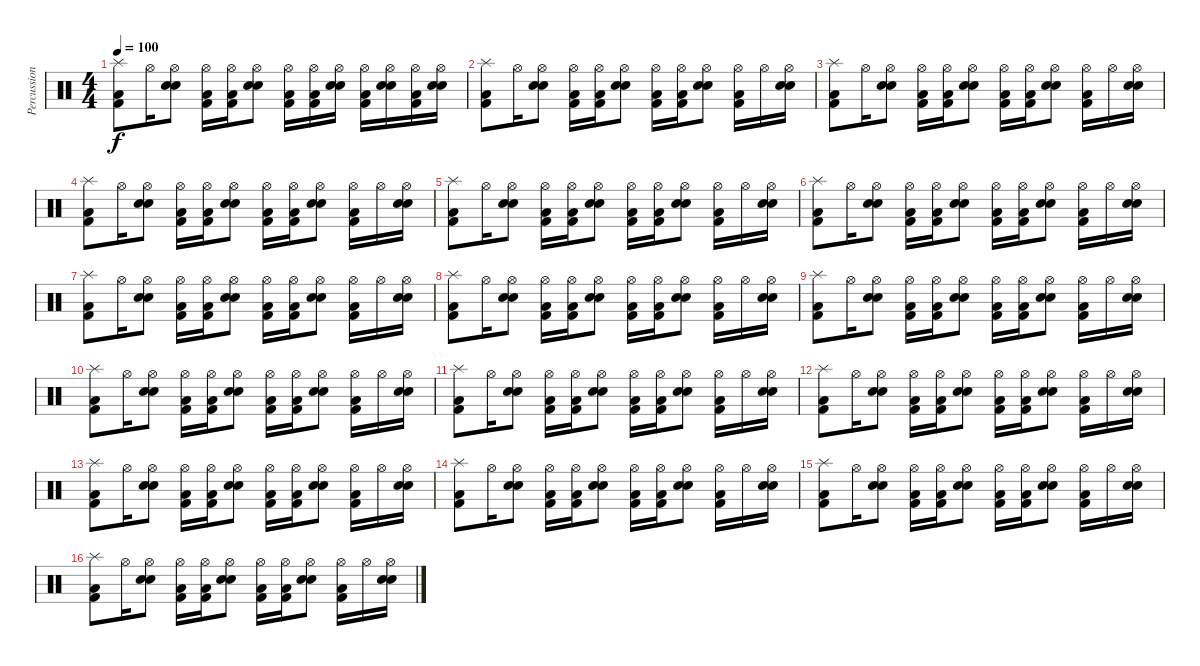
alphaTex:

\track ("Percussions" "Percussion") {instrument percussion}
\staff {score}
\articulation defaults
\ts (4 4)
\tempo 100
\clef neutral
\ks c
("Splash (hit)" "Kick (hit) 2" "Low Floor Tom (hit)").8{dy f} "Hi-Hat (open)".16 ("Hi-Hat (open)" "Snare (hit) 2" "Electric Snare (hit)").8 ("Hi-Hat (open)" "Kick (hit) 2" "Low Floor Tom (hit)").16 ("Hi-Hat (open)" "Kick (hit) 2" "Low Floor Tom (hit)").16 ("Hi-Hat (open)" "Snare (hit) 2" "Electric Snare (hit)").8 ("Hi-Hat (open)" "Kick (hit) 2" "Low Floor Tom (hit)").16 ("Hi-Hat (open)" "Kick (hit) 2" "Low Floor Tom (hit)").16 ("Hi-Hat (open)" "Snare (hit) 2" "Electric Snare (hit)").16 ("Hi-Hat (open)" "Kick (hit) 2" "Low Floor Tom (hit)").16 ("Hi-Hat (open)" "Snare (hit) 2" "Electric Snare (hit)").16 ("Hi-Hat (open)" "Kick (hit) 2" "Low Floor Tom (hit)").16 ("Hi-Hat (open)" "Snare (hit) 2" "Electric Snare (hit)").16 |
("Splash (hit)" "Kick (hit) 2" "Low Floor Tom (hit)").8 "Hi-Hat (open)".16 ("Hi-Hat (open)" "Snare (hit) 2" "Electric Snare (hit)").8 ("Hi-Hat (open)" "Kick (hit) 2" "Low Floor Tom (hit)").16 ("Hi-Hat (open)" "Kick (hit) 2" "Low Floor Tom (hit)").16 ("Hi-Hat (open)" "Snare (hit) 2" "Electric Snare (hit)").8 ("Hi-Hat (open)" "Kick (hit) 2" "Low Floor Tom (hit)").16 ("Hi-Hat (open)" "Kick (hit) 2" "Low Floor Tom (hit)").16 ("Hi-Hat (open)" "Snare (hit) 2" "Electric Snare (hit)").8 ("Hi-Hat (open)" "Kick (hit) 2" "Low Floor Tom (hit)").16 "Hi-Hat (open)".16 ("Hi-Hat (open)" "Snare (hit) 2" "Electric Snare (hit)").16 |
("Splash (hit)" "Kick (hit) 2" "Low Floor Tom (hit)").8 "Hi-Hat (open)".16 ("Hi-Hat (open)" "Snare (hit) 2" "Electric Snare (hit)").8 ("Hi-Hat (open)" "Kick (hit) 2" "Low Floor Tom (hit)").16 ("Hi-Hat (open)" "Kick (hit) 2" "Low Floor Tom (hit)").16 ("Hi-Hat (open)" "Snare (hit) 2" "Electric Snare (hit)").8 ("Hi-Hat (open)" "Kick (hit) 2" "Low Floor Tom (hit)").16 ("Hi-Hat (open)" "Kick (hit) 2" "Low Floor Tom (hit)").16 ("Hi-Hat (open)" "Snare (hit) 2" "Electric Snare (hit)").8 ("Hi-Hat (open)" "Kick (hit) 2" "Low Floor Tom (hit)").16 "Hi-Hat (open)".16 ("Hi-Hat (open)" "Snare (hit) 2" "Electric Snare (hit)").16 |
("Splash (hit)" "Kick (hit) 2" "Low Floor Tom (hit)").8 "Hi-Hat (open)".16 ("Hi-Hat (open)" "Snare (hit) 2" "Electric Snare (hit)").8 ("Hi-Hat (open)" "Kick (hit) 2" "Low Floor Tom (hit)").16 ("Hi-Hat (open)" "Kick (hit) 2" "Low Floor Tom (hit)").16 ("Hi-Hat (open)" "Snare (hit) 2" "Electric Snare (hit)").8 ("Hi-Hat (open)" "Kick (hit) 2" "Low Floor Tom (hit)").16 ("Hi-Hat (open)" "Kick (hit) 2" "Low Floor Tom (hit)").16 ("Hi-Hat (open)" "Snare (hit) 2" "Electric Snare (hit)").8 ("Hi-Hat (open)" "Kick (hit) 2" "Low Floor Tom (hit)").16 "Hi-Hat (open)".16 ("Hi-Hat (open)" "Snare (hit) 2" "Electric Snare (hit)").16 |
("Splash (hit)" "Kick (hit) 2" "Low Floor Tom (hit)").8 "Hi-Hat (open)".16 ("Hi-Hat (open)" "Snare (hit) 2" "Electric Snare (hit)").8 ("Hi-Hat (open)" "Kick (hit) 2" "Low Floor Tom (hit)").16 ("Hi-Hat (open)" "Kick (hit) 2" "Low Floor Tom (hit)").16 ("Hi-Hat (open)" "Snare (hit) 2" "Electric Snare (hit)").8 ("Hi-Hat (open)" "Kick (hit) 2" "Low Floor Tom (hit)").16 ("Hi-Hat (open)" "Kick (hit) 2" "Low Floor Tom (hit)").16 ("Hi-Hat (open)" "Snare (hit) 2" "Electric Snare (hit)").8 ("Hi-Hat (open)" "Kick (hit) 2" "Low Floor Tom (hit)").16 "Hi-Hat (open)".16 ("Hi-Hat (open)" "Snare (hit) 2" "Electric Snare (hit)").16 |
("Splash (hit)" "Kick (hit) 2" "Low Floor Tom (hit)").8 "Hi-Hat (open)".16 ("Hi-Hat (open)" "Snare (hit) 2" "Electric Snare (hit)").8 ("Hi-Hat (open)" "Kick (hit) 2" "Low Floor Tom (hit)").16 ("Hi-Hat (open)" "Kick (hit) 2" "Low Floor Tom (hit)").16 ("Hi-Hat (open)" "Snare (hit) 2" "Electric Snare (hit)").8 ("Hi-Hat (open)" "Kick (hit) 2" "Low Floor Tom (hit)").16 ("Hi-Hat (open)" "Kick (hit) 2" "Low Floor Tom (hit)").16 ("Hi-Hat (open)" "Snare (hit) 2" "Electric Snare (hit)").8 ("Hi-Hat (open)" "Kick (hit) 2" "Low Floor Tom (hit)").16 "Hi-Hat (open)".16 ("Hi-Hat (open)" "Snare (hit) 2" "Electric Snare (hit)").16 |
("Splash (hit)" "Kick (hit) 2" "Low Floor Tom (hit)").8 "Hi-Hat (open)".16 ("Hi-Hat (open)" "Snare (hit) 2" "Electric Snare (hit)").8 ("Hi-Hat (open)" "Kick (hit) 2" "Low Floor Tom (hit)").16 ("Hi-Hat (open)" "Kick (hit) 2" "Low Floor Tom (hit)").16 ("Hi-Hat (open)" "Snare (hit) 2" "Electric Snare (hit)").8 ("Hi-Hat (open)" "Kick (hit) 2" "Low Floor Tom (hit)").16 ("Hi-Hat (open)" "Kick (hit) 2" "Low Floor Tom (hit)").16 ("Hi-Hat (open)" "Snare (hit) 2" "Electric Snare (hit)").8 ("Hi-Hat (open)" "Kick (hit) 2" "Low Floor Tom (hit)").16 "Hi-Hat (open)".16 ("Hi-Hat (open)" "Snare (hit) 2" "Electric Snare (hit)").16 |
("Splash (hit)" "Kick (hit) 2" "Low Floor Tom (hit)").8 "Hi-Hat (open)".16 ("Hi-Hat (open)" "Snare (hit) 2" "Electric Snare (hit)").8 ("Hi-Hat (open)" "Kick (hit) 2" "Low Floor Tom (hit)").16 ("Hi-Hat (open)" "Kick (hit) 2" "Low Floor Tom (hit)").16 ("Hi-Hat (open)" "Snare (hit) 2" "Electric Snare (hit)").8 ("Hi-Hat (open)" "Kick (hit) 2" "Low Floor Tom (hit)").16 ("Hi-Hat (open)" "Kick (hit) 2" "Low Floor Tom (hit)").16 ("Hi-Hat (open)" "Snare (hit) 2" "Electric Snare (hit)").8 ("Hi-Hat (open)" "Kick (hit) 2" "Low Floor Tom (hit)").16 "Hi-Hat (open)".16 ("Hi-Hat (open)" "Snare (hit) 2" "Electric Snare (hit)").16 |
("Splash (hit)" "Kick (hit) 2" "Low Floor Tom (hit)").8 "Hi-Hat (open)".16 ("Hi-Hat (open)" "Snare (hit) 2" "Electric Snare (hit)").8 ("Hi-Hat (open)" "Kick (hit) 2" "Low Floor Tom (hit)").16 ("Hi-Hat (open)" "Kick (hit) 2" "Low Floor Tom (hit)").16 ("Hi-Hat (open)" "Snare (hit) 2" "Electric Snare (hit)").8 ("Hi-Hat (open)" "Kick (hit) 2" "Low Floor Tom (hit)").16 ("Hi-Hat (open)" "Kick (hit) 2" "Low Floor Tom (hit)").16 ("Hi-Hat (open)" "Snare (hit) 2" "Electric Snare (hit)").8 ("Hi-Hat (open)" "Kick (hit) 2" "Low Floor Tom (hit)").16 "Hi-Hat (open)".16 ("Hi-Hat (open)" "Snare (hit) 2" "Electric Snare (hit)").16 |
("Splash (hit)" "Kick (hit) 2" "Low Floor Tom (hit)").8 "Hi-Hat (open)".16 ("Hi-Hat (open)" "Snare (hit) 2" "Electric Snare (hit)").8 ("Hi-Hat (open)" "Kick (hit) 2" "Low Floor Tom (hit)").16 ("Hi-Hat (open)" "Kick (hit) 2" "Low Floor Tom (hit)").16 ("Hi-Hat (open)" "Snare (hit) 2" "Electric Snare (hit)").8 ("Hi-Hat (open)" "Kick (hit) 2" "Low Floor Tom (hit)").16 ("Hi-Hat (open)" "Kick (hit) 2" "Low Floor Tom (hit)").16 ("Hi-Hat (open)" "Snare (hit) 2" "Electric Snare (hit)").8 ("Hi-Hat (open)" "Kick (hit) 2" "Low Floor Tom (hit)").16 "Hi-Hat (open)".16 ("Hi-Hat (open)" "Snare (hit) 2" "Electric Snare (hit)").16 |
("Splash (hit)" "Kick (hit) 2" "Low Floor Tom (hit)").8 "Hi-Hat (open)".16 ("Hi-Hat (open)" "Snare (hit) 2" "Electric Snare (hit)").8 ("Hi-Hat (open)" "Kick (hit) 2" "Low Floor Tom (hit)").16 ("Hi-Hat (open)" "Kick (hit) 2" "Low Floor Tom (hit)").16 ("Hi-Hat (open)" "Snare (hit) 2" "Electric Snare (hit)").8 ("Hi-Hat (open)" "Kick (hit) 2" "Low Floor Tom (hit)").16 ("Hi-Hat (open)" "Kick (hit) 2" "Low Floor Tom (hit)").16 ("Hi-Hat (open)" "Snare (hit) 2" "Electric Snare (hit)").8 ("Hi-Hat (open)" "Kick (hit) 2" "Low Floor Tom (hit)").16 "Hi-Hat (open)".16 ("Hi-Hat (open)" "Snare (hit) 2" "Electric Snare (hit)").16 |
("Splash (hit)" "Kick (hit) 2" "Low Floor Tom (hit)").8 "Hi-Hat (open)".16 ("Hi-Hat (open)" "Snare (hit) 2" "Electric Snare (hit)").8 ("Hi-Hat (open)" "Kick (hit) 2" "Low Floor Tom (hit)").16 ("Hi-Hat (open)" "Kick (hit) 2" "Low Floor Tom (hit)").16 ("Hi-Hat (open)" "Snare (hit) 2" "Electric Snare (hit)").8 ("Hi-Hat (open)" "Kick (hit) 2" "Low Floor Tom (hit)").16 ("Hi-Hat (open)" "Kick (hit) 2" "Low Floor Tom (hit)").16 ("Hi-Hat (open)" "Snare (hit) 2" "Electric Snare (hit)").8 ("Hi-Hat (open)" "Kick (hit) 2" "Low Floor Tom (hit)").16 "Hi-Hat (open)".16 ("Hi-Hat (open)" "Snare (hit) 2" "Electric Snare (hit)").16 |
("Splash (hit)" "Kick (hit) 2" "Low Floor Tom (hit)").8 "Hi-Hat (open)".16 ("Hi-Hat (open)" "Snare (hit) 2" "Electric Snare (hit)").8 ("Hi-Hat (open)" "Kick (hit) 2" "Low Floor Tom (hit)").16 ("Hi-Hat (open)" "Kick (hit) 2" "Low Floor Tom (hit)").16 ("Hi-Hat (open)" "Snare (hit) 2" "Electric Snare (hit)").8 ("Hi-Hat (open)" "Kick (hit) 2" "Low Floor Tom (hit)").16 ("Hi-Hat (open)" "Kick (hit) 2" "Low Floor Tom (hit)").16 ("Hi-Hat (open)" "Snare (hit) 2" "Electric Snare (hit)").8 ("Hi-Hat (open)" "Kick (hit) 2" "Low Floor Tom (hit)").16 "Hi-Hat (open)".16 ("Hi-Hat (open)" "Snare (hit) 2" "Electric Snare (hit)").16 |
("Splash (hit)" "Kick (hit) 2" "Low Floor Tom (hit)").8 "Hi-Hat (open)".16 ("Hi-Hat (open)" "Snare (hit) 2" "Electric Snare (hit)").8 ("Hi-Hat (open)" "Kick (hit) 2" "Low Floor Tom (hit)").16 ("Hi-Hat (open)" "Kick (hit) 2" "Low Floor Tom (hit)").16 ("Hi-Hat (open)" "Snare (hit) 2" "Electric Snare (hit)").8 ("Hi-Hat (open)" "Kick (hit) 2" "Low Floor Tom (hit)").16 ("Hi-Hat (open)" "Kick (hit) 2" "Low Floor Tom (hit)").16 ("Hi-Hat (open)" "Snare (hit) 2" "Electric Snare (hit)").8 ("Hi-Hat (open)" "Kick (hit) 2" "Low Floor Tom (hit)").16 "Hi-Hat (open)".16 ("Hi-Hat (open)" "Snare (hit) 2" "Electric Snare (hit)").16 |
("Splash (hit)" "Kick (hit) 2" "Low Floor Tom (hit)").8 "Hi-Hat (open)".16 ("Hi-Hat (open)" "Snare (hit) 2" "Electric Snare (hit)").8 ("Hi-Hat (open)" "Kick (hit) 2" "Low Floor Tom (hit)").16 ("Hi-Hat (open)" "Kick (hit) 2" "Low Floor Tom (hit)").16 ("Hi-Hat (open)" "Snare (hit) 2" "Electric Snare (hit)").8 ("Hi-Hat (open)" "Kick (hit) 2" "Low Floor Tom (hit)").16 ("Hi-Hat (open)" "Kick (hit) 2" "Low Floor Tom (hit)").16 ("Hi-Hat (open)" "Snare (hit) 2" "Electric Snare (hit)").8 ("Hi-Hat (open)" "Kick (hit) 2" "Low Floor Tom (hit)").16 "Hi-Hat (open)".16 ("Hi-Hat (open)" "Snare (hit) 2" "Electric Snare (hit)").16 |
("Splash (hit)" "Kick (hit) 2" "Low Floor Tom (hit)").8 "Hi-Hat (open)".16 ("Hi-Hat (open)" "Snare (hit) 2" "Electric Snare (hit)").8 ("Hi-Hat (open)" "Kick (hit) 2" "Low Floor Tom (hit)").16 ("Hi-Hat (open)" "Kick (hit) 2" "Low Floor Tom (hit)").16 ("Hi-Hat (open)" "Snare (hit) 2" "Electric Snare (hit)").8 ("Hi-Hat (open)" "Kick (hit) 2" "Low Floor Tom (hit)").16 ("Hi-Hat (open)" "Kick (hit) 2" "Low Floor Tom (hit)").16 ("Hi-Hat (open)" "Snare (hit) 2" "Electric Snare (hit)").8 ("Hi-Hat (open)" "Kick (hit) 2" "Low Floor Tom (hit)").16 "Hi-Hat (open)".16 ("Hi-Hat (open)" "Snare (hit) 2" "Electric Snare (hit)").16
